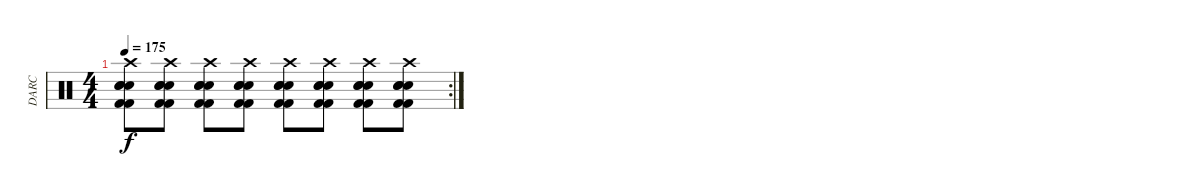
\track ("DARC" "DARC") {instrument percussion}
\staff {score}
\articulation defaults
\rc 2
\ts (4 4)
\tempo 175
\clef neutral
\ks c
("Kick (hit) 2" "Electric Snare (hit)" "Electric Snare (hit)" "Kick (hit) 2" "Crash high (hit)" "Electric Snare (hit)").8{dy f} ("Kick (hit) 2" "Electric Snare (hit)" "Electric Snare (hit)" "Kick (hit) 2" "Crash high (hit)" "Electric Snare (hit)").8 ("Kick (hit) 2" "Electric Snare (hit)" "Electric Snare (hit)" "Kick (hit) 2" "Crash high (hit)" "Electric Snare (hit)").8 ("Kick (hit) 2" "Electric Snare (hit)" "Electric Snare (hit)" "Kick (hit) 2" "Crash high (hit)" "Electric Snare (hit)").8 ("Kick (hit) 2" "Electric Snare (hit)" "Electric Snare (hit)" "Kick (hit) 2" "Crash high (hit)" "Electric Snare (hit)").8 ("Kick (hit) 2" "Electric Snare (hit)" "Electric Snare (hit)" "Kick (hit) 2" "Crash high (hit)" "Electric Snare (hit)").8 ("Kick (hit) 2" "Electric Snare (hit)" "Electric Snare (hit)" "Kick (hit) 2" "Crash high (hit)" "Electric Snare (hit)").8 ("Kick (hit) 2" "Electric Snare (hit)" "Electric Snare (hit)" "Kick (hit) 2" "Crash high (hit)" "Electric Snare (hit)").8
